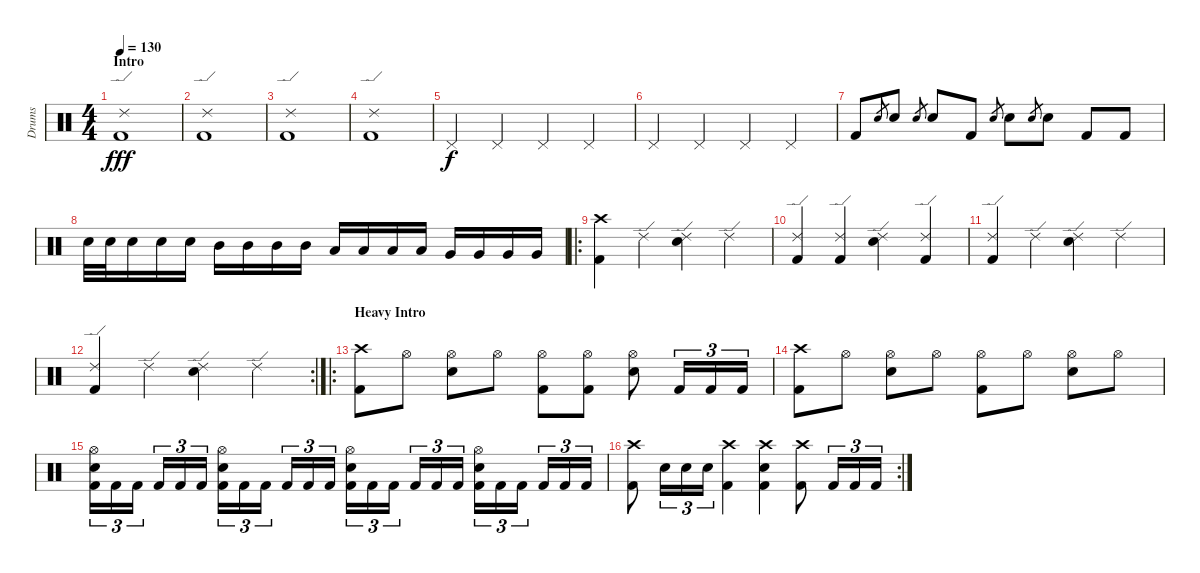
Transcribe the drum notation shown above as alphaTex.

\track ("Drums" "Drums") {instrument percussion}
\staff {score}
\articulation defaults
\ts (4 4)
\section ("" "Intro")
\tempo 130
\clef neutral
\ks c
("Ride (edge) 2" "Kick (hit) 2").1{dy fff} |
("Ride (edge) 2" "Kick (hit) 2").1 |
("Ride (edge) 2" "Kick (hit) 2").1 |
("Ride (edge) 2" "Kick (hit) 2").1 |
"Pedal Hi-Hat (hit)".4{dy f} "Pedal Hi-Hat (hit)".4 "Pedal Hi-Hat (hit)".4 "Pedal Hi-Hat (hit)".4 |
"Pedal Hi-Hat (hit)".4 "Pedal Hi-Hat (hit)".4 "Pedal Hi-Hat (hit)".4 "Pedal Hi-Hat (hit)".4 |
"Kick (hit) 2".8 "Electric Snare (hit)".8{gr} "Electric Snare (hit)".8 "Electric Snare (hit)".8{gr} "Electric Snare (hit)".8 "Kick (hit) 2".8 "Electric Snare (hit)".8{gr} "Electric Snare (hit)".8 "Electric Snare (hit)".8{gr} "Electric Snare (hit)".8 "Kick (hit) 2".8 "Kick (hit) 2".8 |
"Electric Snare (hit)".32 "Electric Snare (hit)".32 "Electric Snare (hit)".16 "Electric Snare (hit)".16 "Electric Snare (hit)".16 "Mid Tom (hit)".16 "Mid Tom (hit)".16 "Mid Tom (hit)".16 "Mid Tom (hit)".16 "Low Tom (hit)".16 "Low Tom (hit)".16 "Low Tom (hit)".16 "Low Tom (hit)".16 "Very Low Tom (hit)".16 "Very Low Tom (hit)".16 "Very Low Tom (hit)".16 "Very Low Tom (hit)".16 |
\ro
("Crash high (hit)" "Kick (hit) 2").4 "Ride (edge) 2".4 ("Ride (edge) 2" "Electric Snare (hit)").4 "Ride (edge) 2".4 |
("Ride (edge) 2" "Kick (hit) 2").4 ("Ride (edge) 2" "Kick (hit) 2").4 ("Ride (edge) 2" "Electric Snare (hit)").4 ("Ride (edge) 2" "Kick (hit) 2").4 |
("Ride (edge) 2" "Kick (hit) 2").4 "Ride (edge) 2".4 ("Ride (edge) 2" "Electric Snare (hit)").4 "Ride (edge) 2".4 |
\rc 2
("Ride (edge) 2" "Kick (hit) 2").4 "Ride (edge) 2".4 ("Ride (edge) 2" "Electric Snare (hit)").4 "Ride (edge) 2".4 |
\ro
\section ("" "Heavy Intro")
("Crash high (hit)" "Kick (hit) 2").8 "Hi-Hat (open)".8 ("Hi-Hat (open)" "Electric Snare (hit)").8 "Hi-Hat (open)".8 ("Hi-Hat (open)" "Kick (hit) 2").8 ("Hi-Hat (open)" "Kick (hit) 2").8 ("Hi-Hat (open)" "Electric Snare (hit)").8 "Kick (hit) 2".16{tu (3 2)} "Kick (hit) 2".16{tu (3 2)} "Kick (hit) 2".16{tu (3 2)} |
("Crash high (hit)" "Kick (hit) 2").8 "Hi-Hat (open)".8 ("Hi-Hat (open)" "Electric Snare (hit)").8 "Hi-Hat (open)".8 ("Hi-Hat (open)" "Kick (hit) 2").8 "Hi-Hat (open)".8 ("Hi-Hat (open)" "Electric Snare (hit)").8 "Hi-Hat (open)".8 |
("Kick (hit) 2" "Electric Snare (hit)" "Hi-Hat (open)").16{tu (3 2)} "Kick (hit) 2".16{tu (3 2)} "Kick (hit) 2".16{tu (3 2)} "Kick (hit) 2".16{tu (3 2)} "Kick (hit) 2".16{tu (3 2)} "Kick (hit) 2".16{tu (3 2)} ("Kick (hit) 2" "Electric Snare (hit)" "Hi-Hat (open)").16{tu (3 2)} "Kick (hit) 2".16{tu (3 2)} "Kick (hit) 2".16{tu (3 2)} "Kick (hit) 2".16{tu (3 2)} "Kick (hit) 2".16{tu (3 2)} "Kick (hit) 2".16{tu (3 2)} ("Kick (hit) 2" "Electric Snare (hit)" "Hi-Hat (open)").16{tu (3 2)} "Kick (hit) 2".16{tu (3 2)} "Kick (hit) 2".16{tu (3 2)} "Kick (hit) 2".16{tu (3 2)} "Kick (hit) 2".16{tu (3 2)} "Kick (hit) 2".16{tu (3 2)} ("Kick (hit) 2" "Electric Snare (hit)" "Hi-Hat (open)").16{tu (3 2)} "Kick (hit) 2".16{tu (3 2)} "Kick (hit) 2".16{tu (3 2)} "Kick (hit) 2".16{tu (3 2)} "Kick (hit) 2".16{tu (3 2)} "Kick (hit) 2".16{tu (3 2)} |
\rc 2
("Crash high (hit)" "Kick (hit) 2").8 "Electric Snare (hit)".16{tu (3 2)} "Electric Snare (hit)".16{tu (3 2)} "Electric Snare (hit)".16{tu (3 2)} ("Crash high (hit)" "Kick (hit) 2").4 ("Crash high (hit)" "Kick (hit) 2" "Electric Snare (hit)").4 ("Crash high (hit)" "Kick (hit) 2").8 "Kick (hit) 2".16{tu (3 2)} "Kick (hit) 2".16{tu (3 2)} "Kick (hit) 2".16{tu (3 2)}
